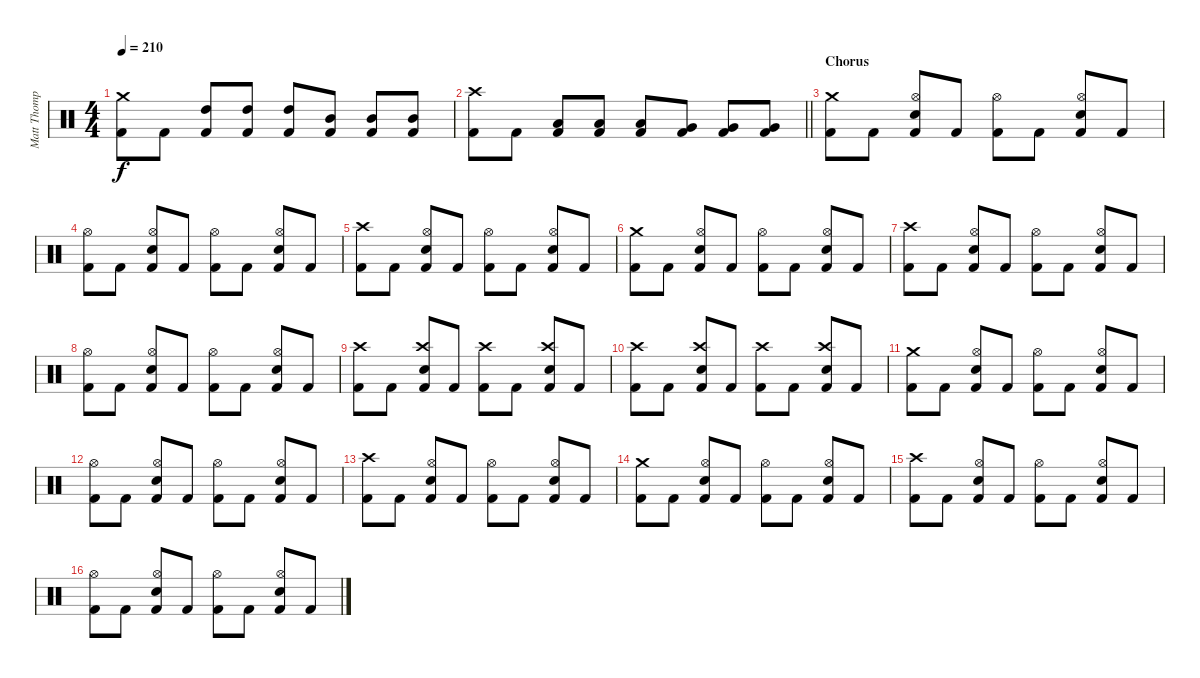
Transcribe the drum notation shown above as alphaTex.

\track ("Matt Thompson" "Matt Thomp") {instrument percussion}
\staff {score}
\articulation defaults
\ts (4 4)
\tempo 210
\clef neutral
\ks c
("Crash medium (hit)" "Kick (hit) 2").8{dy f} "Kick (hit) 2".8 ("High Tom (hit)" "Kick (hit) 2").8 ("High Tom (hit)" "Kick (hit) 2").8 ("High Tom (hit)" "Kick (hit) 2").8 ("Mid Tom (hit)" "Kick (hit) 2").8 ("Mid Tom (hit)" "Kick (hit) 2").8 ("Mid Tom (hit)" "Kick (hit) 2").8 |
\barLineRight lightlight
("Crash high (hit)" "Kick (hit) 2").8 "Kick (hit) 2".8 ("Low Tom (hit)" "Kick (hit) 2").8 ("Low Tom (hit)" "Kick (hit) 2").8 ("Low Tom (hit)" "Kick (hit) 2").8 ("Very Low Tom (hit)" "Kick (hit) 2").8 ("Very Low Tom (hit)" "Kick (hit) 2").8 ("Very Low Tom (hit)" "Kick (hit) 2").8 |
\section ("" "Chorus")
("Crash medium (hit)" "Kick (hit) 2").8 "Kick (hit) 2".8 ("Hi-Hat (open)" "Electric Snare (hit)" "Kick (hit) 2").8 "Kick (hit) 2".8 ("Hi-Hat (open)" "Kick (hit) 2").8 "Kick (hit) 2".8 ("Hi-Hat (open)" "Electric Snare (hit)" "Kick (hit) 2").8 "Kick (hit) 2".8 |
("Hi-Hat (open)" "Kick (hit) 2").8 "Kick (hit) 2".8 ("Hi-Hat (open)" "Electric Snare (hit)" "Kick (hit) 2").8 "Kick (hit) 2".8 ("Hi-Hat (open)" "Kick (hit) 2").8 "Kick (hit) 2".8 ("Hi-Hat (open)" "Electric Snare (hit)" "Kick (hit) 2").8 "Kick (hit) 2".8 |
("Crash high (hit)" "Kick (hit) 2").8 "Kick (hit) 2".8 ("Hi-Hat (open)" "Electric Snare (hit)" "Kick (hit) 2").8 "Kick (hit) 2".8 ("Hi-Hat (open)" "Kick (hit) 2").8 "Kick (hit) 2".8 ("Hi-Hat (open)" "Electric Snare (hit)" "Kick (hit) 2").8 "Kick (hit) 2".8 |
("Crash medium (hit)" "Kick (hit) 2").8 "Kick (hit) 2".8 ("Hi-Hat (open)" "Electric Snare (hit)" "Kick (hit) 2").8 "Kick (hit) 2".8 ("Hi-Hat (open)" "Kick (hit) 2").8 "Kick (hit) 2".8 ("Hi-Hat (open)" "Electric Snare (hit)" "Kick (hit) 2").8 "Kick (hit) 2".8 |
("Crash high (hit)" "Kick (hit) 2").8 "Kick (hit) 2".8 ("Hi-Hat (open)" "Electric Snare (hit)" "Kick (hit) 2").8 "Kick (hit) 2".8 ("Hi-Hat (open)" "Kick (hit) 2").8 "Kick (hit) 2".8 ("Hi-Hat (open)" "Electric Snare (hit)" "Kick (hit) 2").8 "Kick (hit) 2".8 |
("Hi-Hat (open)" "Kick (hit) 2").8 "Kick (hit) 2".8 ("Hi-Hat (open)" "Electric Snare (hit)" "Kick (hit) 2").8 "Kick (hit) 2".8 ("Hi-Hat (open)" "Kick (hit) 2").8 "Kick (hit) 2".8 ("Hi-Hat (open)" "Electric Snare (hit)" "Kick (hit) 2").8 "Kick (hit) 2".8 |
("Crash high (hit)" "Kick (hit) 2").8 "Kick (hit) 2".8 ("Crash high (hit)" "Electric Snare (hit)" "Kick (hit) 2").8 "Kick (hit) 2".8 ("Crash high (hit)" "Kick (hit) 2").8 "Kick (hit) 2".8 ("Crash high (hit)" "Electric Snare (hit)" "Kick (hit) 2").8 "Kick (hit) 2".8 |
("Crash high (hit)" "Kick (hit) 2").8 "Kick (hit) 2".8 ("Crash high (hit)" "Electric Snare (hit)" "Kick (hit) 2").8 "Kick (hit) 2".8 ("Crash high (hit)" "Kick (hit) 2").8 "Kick (hit) 2".8 ("Crash high (hit)" "Electric Snare (hit)" "Kick (hit) 2").8 "Kick (hit) 2".8 |
("Crash medium (hit)" "Kick (hit) 2").8 "Kick (hit) 2".8 ("Hi-Hat (open)" "Electric Snare (hit)" "Kick (hit) 2").8 "Kick (hit) 2".8 ("Hi-Hat (open)" "Kick (hit) 2").8 "Kick (hit) 2".8 ("Hi-Hat (open)" "Electric Snare (hit)" "Kick (hit) 2").8 "Kick (hit) 2".8 |
("Hi-Hat (open)" "Kick (hit) 2").8 "Kick (hit) 2".8 ("Hi-Hat (open)" "Electric Snare (hit)" "Kick (hit) 2").8 "Kick (hit) 2".8 ("Hi-Hat (open)" "Kick (hit) 2").8 "Kick (hit) 2".8 ("Hi-Hat (open)" "Electric Snare (hit)" "Kick (hit) 2").8 "Kick (hit) 2".8 |
("Crash high (hit)" "Kick (hit) 2").8 "Kick (hit) 2".8 ("Hi-Hat (open)" "Electric Snare (hit)" "Kick (hit) 2").8 "Kick (hit) 2".8 ("Hi-Hat (open)" "Kick (hit) 2").8 "Kick (hit) 2".8 ("Hi-Hat (open)" "Electric Snare (hit)" "Kick (hit) 2").8 "Kick (hit) 2".8 |
("Crash medium (hit)" "Kick (hit) 2").8 "Kick (hit) 2".8 ("Hi-Hat (open)" "Electric Snare (hit)" "Kick (hit) 2").8 "Kick (hit) 2".8 ("Hi-Hat (open)" "Kick (hit) 2").8 "Kick (hit) 2".8 ("Hi-Hat (open)" "Electric Snare (hit)" "Kick (hit) 2").8 "Kick (hit) 2".8 |
("Crash high (hit)" "Kick (hit) 2").8 "Kick (hit) 2".8 ("Hi-Hat (open)" "Electric Snare (hit)" "Kick (hit) 2").8 "Kick (hit) 2".8 ("Hi-Hat (open)" "Kick (hit) 2").8 "Kick (hit) 2".8 ("Hi-Hat (open)" "Electric Snare (hit)" "Kick (hit) 2").8 "Kick (hit) 2".8 |
("Hi-Hat (open)" "Kick (hit) 2").8 "Kick (hit) 2".8 ("Hi-Hat (open)" "Electric Snare (hit)" "Kick (hit) 2").8 "Kick (hit) 2".8 ("Hi-Hat (open)" "Kick (hit) 2").8 "Kick (hit) 2".8 ("Hi-Hat (open)" "Electric Snare (hit)" "Kick (hit) 2").8 "Kick (hit) 2".8
